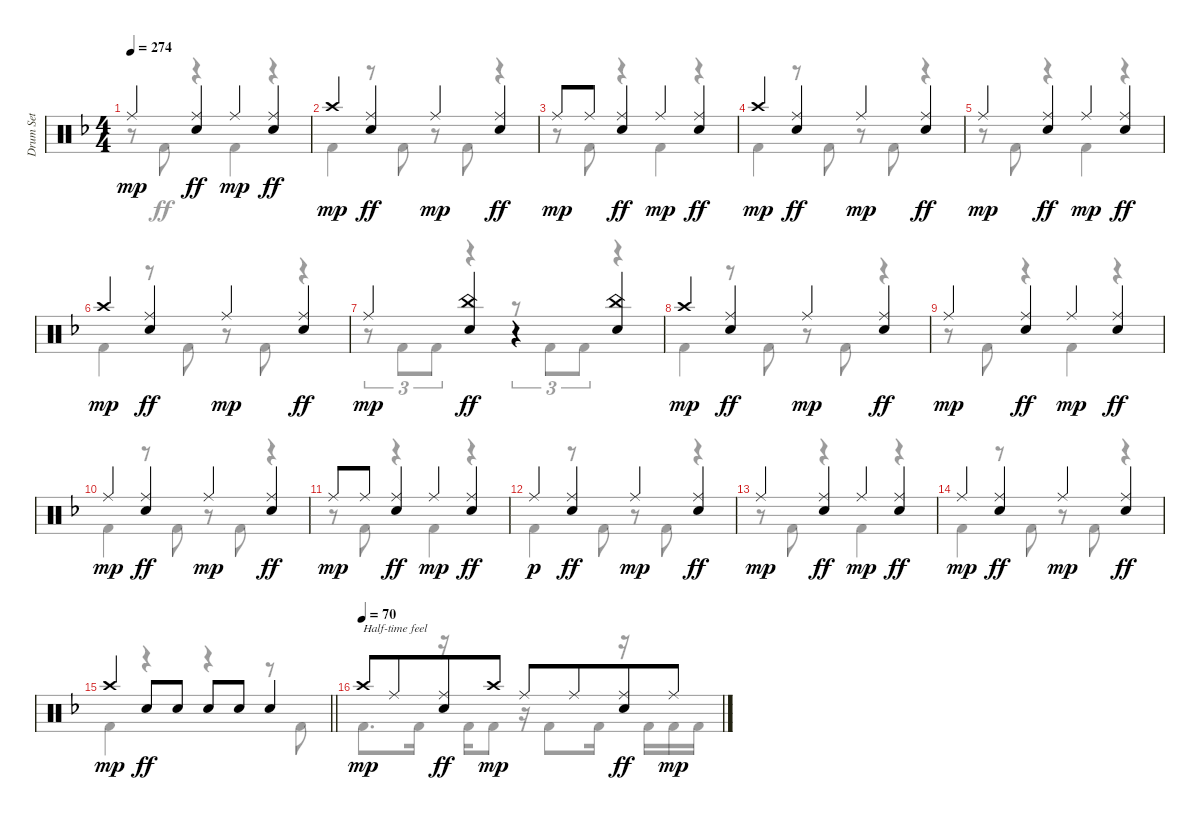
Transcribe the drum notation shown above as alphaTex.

\track ("Drum Set" "Drum Set") {instrument percussion}
\staff {score}
\articulation defaults
\voice
\ts (4 4)
\tempo 274
\clef neutral
\ks dminor "Ride (middle)".4{dy mp}
("Ride (middle)" "Electric Snare (hit)").4{dy ff} "Ride (middle)".4{dy mp} ("Ride (middle)" "Electric Snare (hit)").4{dy ff} |
"Crash high (hit)".4{dy mp} ("Ride (middle)" "Electric Snare (hit)").4{dy ff} "Ride (middle)".4{dy mp} ("Ride (middle)" "Electric Snare (hit)").4{dy ff} |
"Ride (middle)".8{dy mp} "Ride (middle)".8 ("Ride (middle)" "Electric Snare (hit)").4{dy ff} "Ride (middle)".4{dy mp} ("Ride (middle)" "Electric Snare (hit)").4{dy ff} |
"Crash high (hit)".4{dy mp} ("Ride (middle)" "Electric Snare (hit)").4{dy ff} "Ride (middle)".4{dy mp} ("Ride (middle)" "Electric Snare (hit)").4{dy ff} |
"Ride (middle)".4{dy mp} ("Ride (middle)" "Electric Snare (hit)").4{dy ff} "Ride (middle)".4{dy mp} ("Ride (middle)" "Electric Snare (hit)").4{dy ff} |
"Crash high (hit)".4{dy mp} ("Ride (middle)" "Electric Snare (hit)").4{dy ff} "Ride (middle)".4{dy mp} ("Ride (middle)" "Electric Snare (hit)").4{dy ff} |
"Ride (middle)".4{dy mp} ("China (hit)" "Electric Snare (hit)").4{dy ff} r.4 ("China (hit)" "Electric Snare (hit)").4 |
"Crash high (hit)".4{dy mp} ("Ride (middle)" "Electric Snare (hit)").4{dy ff} "Ride (middle)".4{dy mp} ("Ride (middle)" "Electric Snare (hit)").4{dy ff} |
"Ride (middle)".4{dy mp} ("Ride (middle)" "Electric Snare (hit)").4{dy ff} "Ride (middle)".4{dy mp} ("Ride (middle)" "Electric Snare (hit)").4{dy ff} |
"Ride (middle)".4{dy mp} ("Ride (middle)" "Electric Snare (hit)").4{dy ff} "Ride (middle)".4{dy mp} ("Ride (middle)" "Electric Snare (hit)").4{dy ff} |
"Ride (middle)".8{dy mp} "Ride (middle)".8 ("Ride (middle)" "Electric Snare (hit)").4{dy ff} "Ride (middle)".4{dy mp} ("Ride (middle)" "Electric Snare (hit)").4{dy ff} |
"Ride (middle)".4{dy p} ("Ride (middle)" "Electric Snare (hit)").4{dy ff} "Ride (middle)".4{dy mp} ("Ride (middle)" "Electric Snare (hit)").4{dy ff} |
"Ride (middle)".4{dy mp} ("Ride (middle)" "Electric Snare (hit)").4{dy ff} "Ride (middle)".4{dy mp} ("Ride (middle)" "Electric Snare (hit)").4{dy ff} |
"Ride (middle)".4{dy mp} ("Ride (middle)" "Electric Snare (hit)").4{dy ff} "Ride (middle)".4{dy mp} ("Ride (middle)" "Electric Snare (hit)").4{dy ff} |
\barLineRight lightlight "Crash high (hit)".4{dy mp} "Electric Snare (hit)".8{dy ff} "Electric Snare (hit)".8 "Electric Snare (hit)".8 "Electric Snare (hit)".8{beam merge} "Electric Snare (hit)".4
|
\tempo (70)
"Crash high (hit)".8{txt "Half-time feel" dy mp} "Ride (middle)".8{beam merge} ("Ride (middle)" "Electric Snare (hit)").8{dy ff} "Crash high (hit)".8{dy mp} "Ride (middle)".8 "Ride (middle)".8{beam merge} ("Ride (middle)" "Electric Snare (hit)").8{dy ff} "Ride (middle)".8{dy mp}
\voice
\clef neutral
\ottava regular
\simile none
\ks dminor
r.8{dy ff} "Kick (hit) 2".8 r.4 "Kick (hit) 2".4 r.4 |
"Kick (hit) 2".4 r.8 "Kick (hit) 2".8 r.8 "Kick (hit) 2".8 r.4 |
r.8 "Kick (hit) 2".8 r.4 "Kick (hit) 2".4 r.4 |
"Kick (hit) 2".4 r.8 "Kick (hit) 2".8 r.8 "Kick (hit) 2".8 r.4 |
r.8 "Kick (hit) 2".8 r.4 "Kick (hit) 2".4 r.4 |
"Kick (hit) 2".4 r.8 "Kick (hit) 2".8 r.8 "Kick (hit) 2".8 r.4 |
r.8{tu (3 2)} "Kick (hit) 2".8{tu (3 2)} "Kick (hit) 2".8{tu (3 2)} r.4 r.8{tu (3 2)} "Kick (hit) 2".8{tu (3 2)} "Kick (hit) 2".8{tu (3 2)} r.4 |
"Kick (hit) 2".4 r.8 "Kick (hit) 2".8 r.8 "Kick (hit) 2".8 r.4 |
r.8 "Kick (hit) 2".8 r.4 "Kick (hit) 2".4 r.4 |
"Kick (hit) 2".4 r.8 "Kick (hit) 2".8 r.8 "Kick (hit) 2".8 r.4 |
r.8 "Kick (hit) 2".8 r.4 "Kick (hit) 2".4 r.4 |
"Kick (hit) 2".4 r.8 "Kick (hit) 2".8 r.8 "Kick (hit) 2".8 r.4 |
r.8 "Kick (hit) 2".8 r.4 "Kick (hit) 2".4 r.4 |
"Kick (hit) 2".4 r.8 "Kick (hit) 2".8 r.8 "Kick (hit) 2".8 r.4 |
\barLineRight lightlight "Kick (hit) 2".4
r.4 r.4 r.8 "Kick (hit) 2".8 |
"Kick (hit) 2".8{d} "Kick (hit) 2".16 r.16 "Kick (hit) 2".16 "Kick (hit) 2".8 r.16 "Kick (hit) 2".8 "Kick (hit) 2".16 r.16 "Kick (hit) 2".16 "Kick (hit) 2".16 "Kick (hit) 2".16
